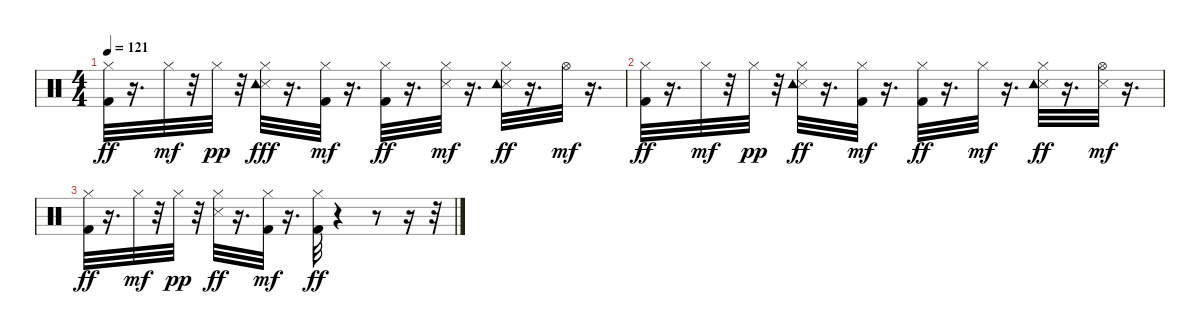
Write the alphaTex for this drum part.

\track "" {instrument percussion}
\staff {score}
\articulation defaults
\ts (4 4)
\tempo 121
\clef neutral
\ks c
("Kick (hit) 2" "Hi-Hat (closed)").32{dy ff} r.16{d} "Hi-Hat (closed)".32{dy mf} r.32 "Hi-Hat (closed)".32{dy pp} r.32 ("Snare (side stick) 3" "Hi-Hat (closed)" "Tambourine (hit)").32{dy fff} r.16{d} ("Kick (hit) 2" "Hi-Hat (closed)").32{dy mf} r.16{d} ("Kick (hit) 2" "Hi-Hat (closed)").32{dy ff} r.16{d} ("Snare (side stick) 3" "Hi-Hat (closed)").32{dy mf} r.16{d} ("Snare (side stick) 3" "Hi-Hat (closed)" "Tambourine (hit)").32{dy ff} r.16{d} "Hi-Hat (open)".32{dy mf} r.16{d} |
("Kick (hit) 2" "Hi-Hat (closed)").32{dy ff} r.16{d} "Hi-Hat (closed)".32{dy mf} r.32 "Hi-Hat (closed)".32{dy pp} r.32 ("Snare (side stick) 3" "Hi-Hat (closed)" "Tambourine (hit)").32{dy ff} r.16{d} ("Kick (hit) 2" "Hi-Hat (closed)").32{dy mf} r.16{d} ("Kick (hit) 2" "Hi-Hat (closed)").32{dy ff} r.16{d} "Hi-Hat (closed)".32{dy mf} r.16{d} ("Snare (side stick) 3" "Hi-Hat (closed)" "Tambourine (hit)").32{dy ff} r.16{d} ("Snare (side stick) 3" "Hi-Hat (open)").32{dy mf} r.16{d} |
("Kick (hit) 2" "Hi-Hat (closed)").32{dy ff} r.16{d} "Hi-Hat (closed)".32{dy mf} r.32 "Hi-Hat (closed)".32{dy pp} r.32 ("Snare (side stick) 3" "Hi-Hat (closed)").32{dy ff} r.16{d} ("Kick (hit) 2" "Hi-Hat (closed)").32{dy mf} r.16{d} ("Kick (hit) 2" "Hi-Hat (closed)").32{dy ff} r.4 r.8 r.16 r.32
